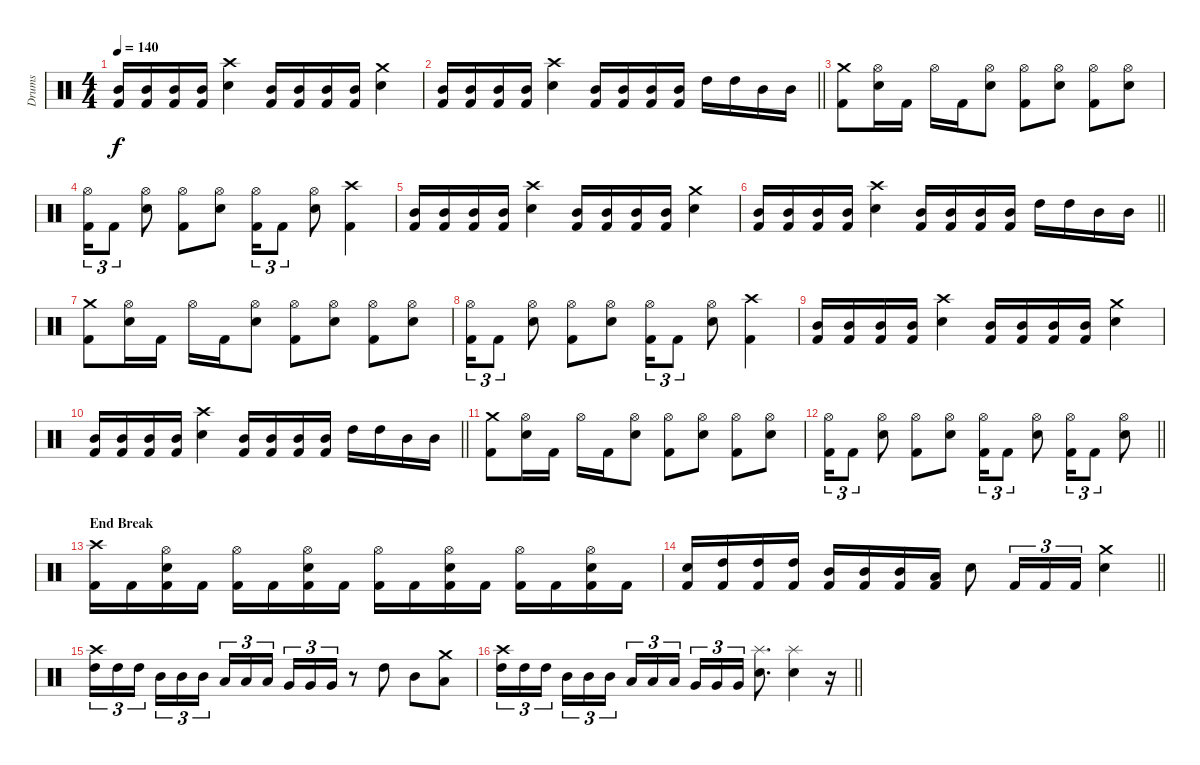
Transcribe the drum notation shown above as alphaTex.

\track ("Drums" "Drums") {instrument percussion}
\staff {score}
\articulation defaults
\ts (4 4)
\tempo 140
\clef neutral
\ks c
("Mid Tom (hit)" "Kick (hit) 2").16{dy f} ("Mid Tom (hit)" "Kick (hit) 2").16 ("Mid Tom (hit)" "Kick (hit) 2").16 ("Mid Tom (hit)" "Kick (hit) 2").16 ("Snare (hit) 2" "Crash high (hit)").4 ("Mid Tom (hit)" "Kick (hit) 2").16 ("Mid Tom (hit)" "Kick (hit) 2").16 ("Mid Tom (hit)" "Kick (hit) 2").16 ("Mid Tom (hit)" "Kick (hit) 2").16 ("Snare (hit) 2" "Crash medium (hit)").4 |
\barLineRight lightlight
("Mid Tom (hit)" "Kick (hit) 2").16 ("Mid Tom (hit)" "Kick (hit) 2").16 ("Mid Tom (hit)" "Kick (hit) 2").16 ("Mid Tom (hit)" "Kick (hit) 2").16 ("Snare (hit) 2" "Crash high (hit)").4 ("Mid Tom (hit)" "Kick (hit) 2").16 ("Mid Tom (hit)" "Kick (hit) 2").16 ("Mid Tom (hit)" "Kick (hit) 2").16 ("Mid Tom (hit)" "Kick (hit) 2").16 "High Tom (hit)".16 "High Tom (hit)".16 "Mid Tom (hit)".16 "Mid Tom (hit)".16 |
("Crash medium (hit)" "Kick (hit) 2").8 ("Hi-Hat (open)" "Snare (hit) 2").16 "Kick (hit) 2".16 "Hi-Hat (open)".16 "Kick (hit) 2".16 ("Hi-Hat (open)" "Snare (hit) 2").8 ("Hi-Hat (open)" "Kick (hit) 2").8 ("Hi-Hat (open)" "Snare (hit) 2").8 ("Hi-Hat (open)" "Kick (hit) 2").8 ("Hi-Hat (open)" "Snare (hit) 2").8 |
("Hi-Hat (open)" "Kick (hit) 2").16{tu (3 2)} "Kick (hit) 2".8{tu (3 2)} ("Hi-Hat (open)" "Snare (hit) 2").8 ("Hi-Hat (open)" "Kick (hit) 2").8 ("Hi-Hat (open)" "Snare (hit) 2").8 ("Hi-Hat (open)" "Kick (hit) 2").16{tu (3 2)} "Kick (hit) 2".8{tu (3 2)} ("Hi-Hat (open)" "Snare (hit) 2").8 ("Crash high (hit)" "Kick (hit) 2").4 |
("Mid Tom (hit)" "Kick (hit) 2").16 ("Mid Tom (hit)" "Kick (hit) 2").16 ("Mid Tom (hit)" "Kick (hit) 2").16 ("Mid Tom (hit)" "Kick (hit) 2").16 ("Snare (hit) 2" "Crash high (hit)").4 ("Mid Tom (hit)" "Kick (hit) 2").16 ("Mid Tom (hit)" "Kick (hit) 2").16 ("Mid Tom (hit)" "Kick (hit) 2").16 ("Mid Tom (hit)" "Kick (hit) 2").16 ("Snare (hit) 2" "Crash medium (hit)").4 |
\barLineRight lightlight
("Mid Tom (hit)" "Kick (hit) 2").16 ("Mid Tom (hit)" "Kick (hit) 2").16 ("Mid Tom (hit)" "Kick (hit) 2").16 ("Mid Tom (hit)" "Kick (hit) 2").16 ("Snare (hit) 2" "Crash high (hit)").4 ("Mid Tom (hit)" "Kick (hit) 2").16 ("Mid Tom (hit)" "Kick (hit) 2").16 ("Mid Tom (hit)" "Kick (hit) 2").16 ("Mid Tom (hit)" "Kick (hit) 2").16 "High Tom (hit)".16 "High Tom (hit)".16 "Mid Tom (hit)".16 "Mid Tom (hit)".16 |
("Crash medium (hit)" "Kick (hit) 2").8 ("Hi-Hat (open)" "Snare (hit) 2").16 "Kick (hit) 2".16 "Hi-Hat (open)".16 "Kick (hit) 2".16 ("Hi-Hat (open)" "Snare (hit) 2").8 ("Hi-Hat (open)" "Kick (hit) 2").8 ("Hi-Hat (open)" "Snare (hit) 2").8 ("Hi-Hat (open)" "Kick (hit) 2").8 ("Hi-Hat (open)" "Snare (hit) 2").8 |
("Hi-Hat (open)" "Kick (hit) 2").16{tu (3 2)} "Kick (hit) 2".8{tu (3 2)} ("Hi-Hat (open)" "Snare (hit) 2").8 ("Hi-Hat (open)" "Kick (hit) 2").8 ("Hi-Hat (open)" "Snare (hit) 2").8 ("Hi-Hat (open)" "Kick (hit) 2").16{tu (3 2)} "Kick (hit) 2".8{tu (3 2)} ("Hi-Hat (open)" "Snare (hit) 2").8 ("Crash high (hit)" "Kick (hit) 2").4 |
("Mid Tom (hit)" "Kick (hit) 2").16 ("Mid Tom (hit)" "Kick (hit) 2").16 ("Mid Tom (hit)" "Kick (hit) 2").16 ("Mid Tom (hit)" "Kick (hit) 2").16 ("Snare (hit) 2" "Crash high (hit)").4 ("Mid Tom (hit)" "Kick (hit) 2").16 ("Mid Tom (hit)" "Kick (hit) 2").16 ("Mid Tom (hit)" "Kick (hit) 2").16 ("Mid Tom (hit)" "Kick (hit) 2").16 ("Snare (hit) 2" "Crash medium (hit)").4 |
\barLineRight lightlight
("Mid Tom (hit)" "Kick (hit) 2").16 ("Mid Tom (hit)" "Kick (hit) 2").16 ("Mid Tom (hit)" "Kick (hit) 2").16 ("Mid Tom (hit)" "Kick (hit) 2").16 ("Snare (hit) 2" "Crash high (hit)").4 ("Mid Tom (hit)" "Kick (hit) 2").16 ("Mid Tom (hit)" "Kick (hit) 2").16 ("Mid Tom (hit)" "Kick (hit) 2").16 ("Mid Tom (hit)" "Kick (hit) 2").16 "High Tom (hit)".16 "High Tom (hit)".16 "Mid Tom (hit)".16 "Mid Tom (hit)".16 |
("Crash medium (hit)" "Kick (hit) 2").8 ("Hi-Hat (open)" "Snare (hit) 2").16 "Kick (hit) 2".16 "Hi-Hat (open)".16 "Kick (hit) 2".16 ("Hi-Hat (open)" "Snare (hit) 2").8 ("Hi-Hat (open)" "Kick (hit) 2").8 ("Hi-Hat (open)" "Snare (hit) 2").8 ("Hi-Hat (open)" "Kick (hit) 2").8 ("Hi-Hat (open)" "Snare (hit) 2").8 |
\barLineRight lightlight
("Hi-Hat (open)" "Kick (hit) 2").16{tu (3 2)} "Kick (hit) 2".8{tu (3 2)} ("Hi-Hat (open)" "Snare (hit) 2").8 ("Hi-Hat (open)" "Kick (hit) 2").8 ("Hi-Hat (open)" "Snare (hit) 2").8 ("Hi-Hat (open)" "Kick (hit) 2").16{tu (3 2)} "Kick (hit) 2".8{tu (3 2)} ("Hi-Hat (open)" "Snare (hit) 2").8 ("Hi-Hat (open)" "Kick (hit) 2").16{tu (3 2)} "Kick (hit) 2".8{tu (3 2)} ("Hi-Hat (open)" "Snare (hit) 2").8 |
\section ("" "End Break")
("Crash high (hit)" "Kick (hit) 2").16 "Kick (hit) 2".16 ("Snare (hit) 2" "Hi-Hat (open)" "Kick (hit) 2").16 "Kick (hit) 2".16 ("Hi-Hat (open)" "Kick (hit) 2").16 "Kick (hit) 2".16 ("Snare (hit) 2" "Hi-Hat (open)" "Kick (hit) 2").16 "Kick (hit) 2".16 ("Hi-Hat (open)" "Kick (hit) 2").16 "Kick (hit) 2".16 ("Snare (hit) 2" "Hi-Hat (open)" "Kick (hit) 2").16 "Kick (hit) 2".16 ("Hi-Hat (open)" "Kick (hit) 2").16 "Kick (hit) 2".16 ("Snare (hit) 2" "Hi-Hat (open)" "Kick (hit) 2").16 "Kick (hit) 2".16 |
\barLineRight lightlight
("Snare (hit) 2" "Kick (hit) 2").16 ("High Tom (hit)" "Kick (hit) 2").16 ("High Tom (hit)" "Kick (hit) 2").16 ("High Tom (hit)" "Kick (hit) 2").16 ("Mid Tom (hit)" "Kick (hit) 2").16 ("Mid Tom (hit)" "Kick (hit) 2").16 ("Mid Tom (hit)" "Kick (hit) 2").16 ("Low Tom (hit)" "Kick (hit) 2").16 "Snare (hit) 2".8 "Kick (hit) 2".16{tu (3 2)} "Kick (hit) 2".16{tu (3 2)} "Kick (hit) 2".16{tu (3 2)} ("Crash medium (hit)" "Snare (hit) 2").4 |
("Crash high (hit)" "High Tom (hit)").16{tu (3 2)} "High Tom (hit)".16{tu (3 2)} "High Tom (hit)".16{tu (3 2) beam splitsecondary} "Mid Tom (hit)".16{tu (3 2)} "Mid Tom (hit)".16{tu (3 2)} "Mid Tom (hit)".16{tu (3 2)} "Low Tom (hit)".16{tu (3 2)} "Low Tom (hit)".16{tu (3 2)} "Low Tom (hit)".16{tu (3 2) beam splitsecondary} "Very Low Tom (hit)".16{tu (3 2)} "Very Low Tom (hit)".16{tu (3 2)} "Very Low Tom (hit)".16{tu (3 2)} r.8 "High Tom (hit)".8 "Mid Tom (hit)".8 ("Crash medium (hit)" "Low Tom (hit)").8 |
\barLineRight lightlight
("Crash high (hit)" "High Tom (hit)").16{tu (3 2)} "High Tom (hit)".16{tu (3 2)} "High Tom (hit)".16{tu (3 2) beam splitsecondary} "Mid Tom (hit)".16{tu (3 2)} "Mid Tom (hit)".16{tu (3 2)} "Mid Tom (hit)".16{tu (3 2)} "Low Tom (hit)".16{tu (3 2)} "Low Tom (hit)".16{tu (3 2)} "Low Tom (hit)".16{tu (3 2) beam splitsecondary} "Very Low Tom (hit)".16{tu (3 2)} "Very Low Tom (hit)".16{tu (3 2)} "Very Low Tom (hit)".16{tu (3 2)} ("Snare (hit) 2" "Splash (hit)").8{d} ("Snare (hit) 2" "Splash (hit)").4 r.16
